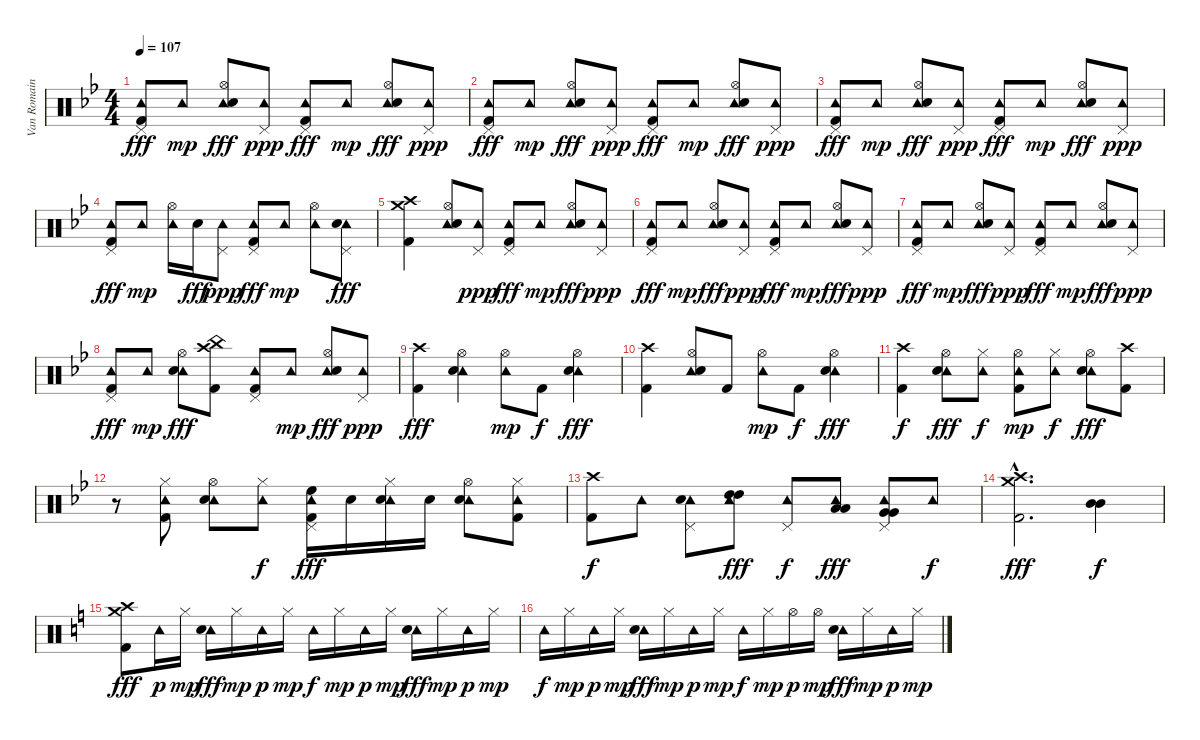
\track ("Van Romaine" "Van Romain") {instrument percussion}
\staff {score}
\articulation defaults
\ts (4 4)
\tempo 107
\clef neutral
\ks bb
("Tambourine (hit)" "Pedal Hi-Hat (hit)" "Kick (hit) 2").8{dy fff} "Tambourine (hit)".8{dy mp} ("Tambourine (hit)" "Hi-Hat (open)" "Electric Snare (hit)").8{dy fff} ("Tambourine (hit)" "Pedal Hi-Hat (hit)").8{dy ppp} ("Tambourine (hit)" "Pedal Hi-Hat (hit)" "Kick (hit) 2").8{dy fff} "Tambourine (hit)".8{dy mp} ("Tambourine (hit)" "Hi-Hat (open)" "Electric Snare (hit)").8{dy fff} ("Tambourine (hit)" "Pedal Hi-Hat (hit)").8{dy ppp} |
("Tambourine (hit)" "Pedal Hi-Hat (hit)" "Kick (hit) 2").8{dy fff} "Tambourine (hit)".8{dy mp} ("Tambourine (hit)" "Hi-Hat (open)" "Electric Snare (hit)").8{dy fff} ("Tambourine (hit)" "Pedal Hi-Hat (hit)").8{dy ppp} ("Tambourine (hit)" "Pedal Hi-Hat (hit)" "Kick (hit) 2").8{dy fff} "Tambourine (hit)".8{dy mp} ("Tambourine (hit)" "Hi-Hat (open)" "Electric Snare (hit)").8{dy fff} ("Tambourine (hit)" "Pedal Hi-Hat (hit)").8{dy ppp} |
("Tambourine (hit)" "Pedal Hi-Hat (hit)" "Kick (hit) 2").8{dy fff} "Tambourine (hit)".8{dy mp} ("Tambourine (hit)" "Hi-Hat (open)" "Electric Snare (hit)").8{dy fff} ("Tambourine (hit)" "Pedal Hi-Hat (hit)").8{dy ppp} ("Tambourine (hit)" "Pedal Hi-Hat (hit)" "Kick (hit) 2").8{dy fff} "Tambourine (hit)".8{dy mp} ("Tambourine (hit)" "Hi-Hat (open)" "Electric Snare (hit)").8{dy fff} ("Tambourine (hit)" "Pedal Hi-Hat (hit)").8{dy ppp} |
("Tambourine (hit)" "Pedal Hi-Hat (hit)" "Kick (hit) 2").8{dy fff} "Tambourine (hit)".8{dy mp} ("Tambourine (hit)" "Hi-Hat (open)").16 "Electric Snare (hit)".16{dy fff} ("Tambourine (hit)" "Pedal Hi-Hat (hit)").8{dy ppp} ("Tambourine (hit)" "Pedal Hi-Hat (hit)" "Kick (hit) 2").8{dy fff} "Tambourine (hit)".8{dy mp} ("Tambourine (hit)" "Hi-Hat (open)").8 ("Tambourine (hit)" "Pedal Hi-Hat (hit)" "Electric Snare (hit)").8{dy fff} |
("Crash high (hit)" "Crash medium (hit)" "Kick (hit) 2").4 ("Tambourine (hit)" "Hi-Hat (open)" "Electric Snare (hit)").8 ("Tambourine (hit)" "Pedal Hi-Hat (hit)").8{dy ppp} ("Tambourine (hit)" "Pedal Hi-Hat (hit)" "Kick (hit) 2").8{dy fff} "Tambourine (hit)".8{dy mp} ("Tambourine (hit)" "Hi-Hat (open)" "Electric Snare (hit)").8{dy fff} ("Tambourine (hit)" "Pedal Hi-Hat (hit)").8{dy ppp} |
("Tambourine (hit)" "Pedal Hi-Hat (hit)" "Kick (hit) 2").8{dy fff} "Tambourine (hit)".8{dy mp} ("Tambourine (hit)" "Hi-Hat (open)" "Electric Snare (hit)").8{dy fff} ("Tambourine (hit)" "Pedal Hi-Hat (hit)").8{dy ppp} ("Tambourine (hit)" "Pedal Hi-Hat (hit)" "Kick (hit) 2").8{dy fff} "Tambourine (hit)".8{dy mp} ("Tambourine (hit)" "Hi-Hat (open)" "Electric Snare (hit)").8{dy fff} ("Tambourine (hit)" "Pedal Hi-Hat (hit)").8{dy ppp} |
("Tambourine (hit)" "Pedal Hi-Hat (hit)" "Kick (hit) 2").8{dy fff} "Tambourine (hit)".8{dy mp} ("Tambourine (hit)" "Hi-Hat (open)" "Electric Snare (hit)").8{dy fff} ("Tambourine (hit)" "Pedal Hi-Hat (hit)").8{dy ppp} ("Tambourine (hit)" "Pedal Hi-Hat (hit)" "Kick (hit) 2").8{dy fff} "Tambourine (hit)".8{dy mp} ("Tambourine (hit)" "Hi-Hat (open)" "Electric Snare (hit)").8{dy fff} ("Tambourine (hit)" "Pedal Hi-Hat (hit)").8{dy ppp} |
("Tambourine (hit)" "Pedal Hi-Hat (hit)" "Kick (hit) 2").8{dy fff} "Tambourine (hit)".8{dy mp} ("Tambourine (hit)" "Hi-Hat (open)" "Electric Snare (hit)").8{dy fff} ("China (hit)" "Crash high (hit)" "Kick (hit) 2").8 ("Tambourine (hit)" "Pedal Hi-Hat (hit)" "Kick (hit) 2").8 "Tambourine (hit)".8{dy mp} ("Tambourine (hit)" "Hi-Hat (open)" "Electric Snare (hit)").8{dy fff} ("Tambourine (hit)" "Pedal Hi-Hat (hit)").8{dy ppp} |
("Crash high (hit)" "Kick (hit) 2").4{dy fff} ("Hi-Hat (open)" "Tambourine (hit)" "Electric Snare (hit)").4 ("Hi-Hat (open)" "Tambourine (hit)").8{dy mp} "Kick (hit) 2".8{dy f} ("Hi-Hat (open)" "Tambourine (hit)" "Electric Snare (hit)").4{dy fff} |
("Crash high (hit)" "Kick (hit) 2").4 ("Hi-Hat (open)" "Tambourine (hit)" "Electric Snare (hit)").8 "Kick (hit) 2".8 ("Hi-Hat (open)" "Tambourine (hit)").8{dy mp} "Kick (hit) 2".8{dy f} ("Hi-Hat (open)" "Tambourine (hit)" "Electric Snare (hit)").4{dy fff} |
("Crash high (hit)" "Kick (hit) 2").4{dy f} ("Hi-Hat (open)" "Tambourine (hit)" "Electric Snare (hit)").8{dy fff} ("Hi-Hat (closed)" "Tambourine (hit)").8{dy f} ("Hi-Hat (open)" "Tambourine (hit)" "Kick (hit) 2").8{dy mp} ("Hi-Hat (closed)" "Tambourine (hit)").8{dy f} ("Hi-Hat (open)" "Tambourine (hit)" "Electric Snare (hit)").8{dy fff} ("Crash high (hit)" "Kick (hit) 2").8 |
r.8 ("Hi-Hat (closed)" "Tambourine (hit)" "Kick (hit) 2").8 ("Hi-Hat (open)" "Tambourine (hit)" "Electric Snare (hit)").8 ("Hi-Hat (closed)" "Tambourine (hit)").8{dy f} ("Pedal Hi-Hat (hit)" "Tambourine (hit)" "High Floor Tom (hit)" "Kick (hit) 2").16{dy fff} "Electric Snare (hit)".16 ("Hi-Hat (closed)" "Tambourine (hit)" "Electric Snare (hit)").16 "Electric Snare (hit)".16 ("Hi-Hat (open)" "Tambourine (hit)" "Electric Snare (hit)").8 ("Hi-Hat (closed)" "Tambourine (hit)" "Kick (hit) 2").8 |
("Crash high (hit)" "Kick (hit) 2").8{dy f} "Tambourine (hit)".8 ("Pedal Hi-Hat (hit)" "Tambourine (hit)" "Electric Snare (hit)").8 ("Tambourine (hit)" "High Tom (hit)" "High Tom (hit)").8{dy fff} ("Pedal Hi-Hat (hit)" "Tambourine (hit)").8{dy f} ("Tambourine (hit)" "Low Tom (hit)" "Low Tom (hit)").8{dy fff} ("Pedal Hi-Hat (hit)" "Tambourine (hit)" "Very Low Tom (hit)" "Very Low Tom (hit)").8 "Tambourine (hit)".8{dy f} |
("Crash high (hit)"{hac} "Crash medium (hit)"{hac} "Kick (hit) 2"{hac}).2{d dy fff} ("Mid Tom (hit)" "Mid Tom (hit)").4{dy f} |
\ks c
("Crash medium (hit)" "Crash high (hit)" "Kick (hit) 2").8{dy fff} "Tambourine (hit)".16{dy p} "Hi-Hat (closed)".16{dy mp} ("Tambourine (hit)" "Electric Snare (hit)").16{dy fff} "Hi-Hat (closed)".16{dy mp} "Tambourine (hit)".16{dy p} "Hi-Hat (closed)".16{dy mp} "Tambourine (hit)".16{dy f} "Hi-Hat (closed)".16{dy mp} "Tambourine (hit)".16{dy p} "Hi-Hat (closed)".16{dy mp} ("Tambourine (hit)" "Electric Snare (hit)").16{dy fff} "Hi-Hat (closed)".16{dy mp} "Tambourine (hit)".16{dy p} "Hi-Hat (closed)".16{dy mp} |
"Tambourine (hit)".16{dy f} "Hi-Hat (closed)".16{dy mp} "Tambourine (hit)".16{dy p} "Hi-Hat (closed)".16{dy mp} ("Tambourine (hit)" "Electric Snare (hit)").16{dy fff} "Hi-Hat (closed)".16{dy mp} "Tambourine (hit)".16{dy p} "Hi-Hat (closed)".16{dy mp} "Tambourine (hit)".16{dy f} "Hi-Hat (closed)".16{dy mp} "Hi-Hat (open)".16{dy p} "Hi-Hat (open)".16{dy mp} ("Tambourine (hit)" "Electric Snare (hit)").16{dy fff} "Hi-Hat (closed)".16{dy mp} "Tambourine (hit)".16{dy p} "Hi-Hat (closed)".16{dy mp}
